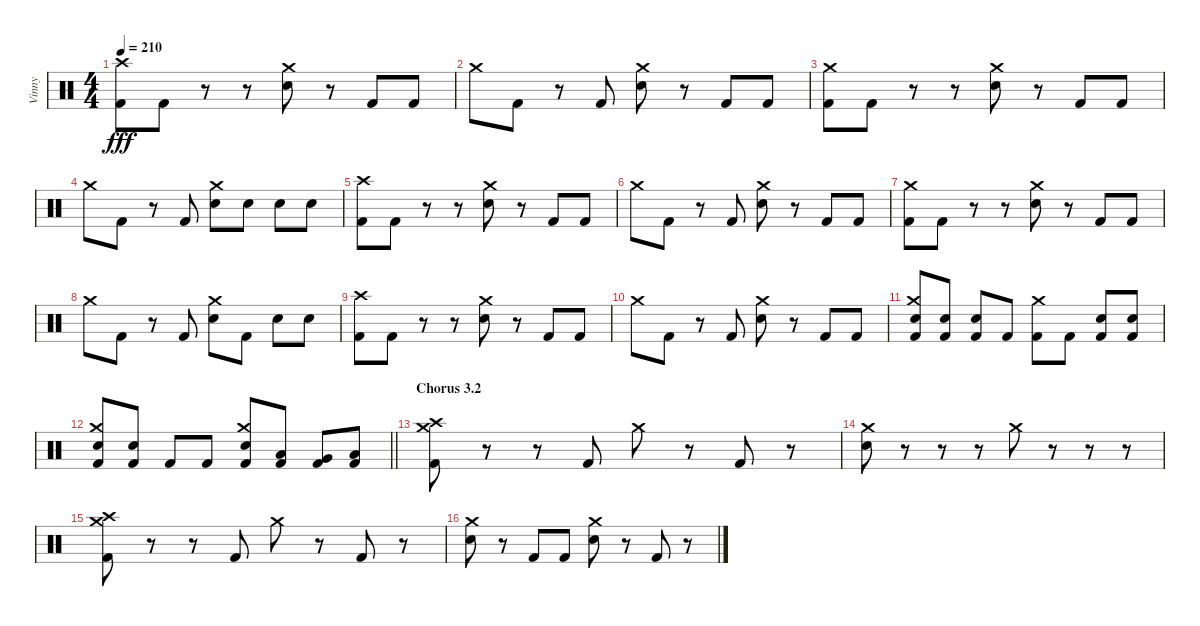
\track ("Vinny" "Vinny") {instrument percussion}
\staff {score}
\articulation defaults
\ts (4 4)
\tempo 210
\clef neutral
\ks c
("Crash high (hit)" "Kick (hit) 2").8{dy fff} "Kick (hit) 2".8 r.8 r.8 ("Crash medium (hit)" "Electric Snare (hit)").8 r.8 "Kick (hit) 2".8 "Kick (hit) 2".8 |
"Crash medium (hit)".8 "Kick (hit) 2".8 r.8 "Kick (hit) 2".8 ("Crash medium (hit)" "Electric Snare (hit)").8 r.8 "Kick (hit) 2".8 "Kick (hit) 2".8 |
("Crash medium (hit)" "Kick (hit) 2").8 "Kick (hit) 2".8 r.8 r.8 ("Crash medium (hit)" "Electric Snare (hit)").8 r.8 "Kick (hit) 2".8 "Kick (hit) 2".8 |
"Crash medium (hit)".8 "Kick (hit) 2".8 r.8 "Kick (hit) 2".8 ("Crash medium (hit)" "Electric Snare (hit)").8 "Electric Snare (hit)".8 "Electric Snare (hit)".8 "Electric Snare (hit)".8 |
("Crash high (hit)" "Kick (hit) 2").8 "Kick (hit) 2".8 r.8 r.8 ("Crash medium (hit)" "Electric Snare (hit)").8 r.8 "Kick (hit) 2".8 "Kick (hit) 2".8 |
"Crash medium (hit)".8 "Kick (hit) 2".8 r.8 "Kick (hit) 2".8 ("Crash medium (hit)" "Electric Snare (hit)").8 r.8 "Kick (hit) 2".8 "Kick (hit) 2".8 |
("Crash medium (hit)" "Kick (hit) 2").8 "Kick (hit) 2".8 r.8 r.8 ("Crash medium (hit)" "Electric Snare (hit)").8 r.8 "Kick (hit) 2".8 "Kick (hit) 2".8 |
"Crash medium (hit)".8 "Kick (hit) 2".8 r.8 "Kick (hit) 2".8 ("Crash medium (hit)" "Electric Snare (hit)").8 "Kick (hit) 2".8 "Electric Snare (hit)".8 "Electric Snare (hit)".8 |
("Crash high (hit)" "Kick (hit) 2").8 "Kick (hit) 2".8 r.8 r.8 ("Crash medium (hit)" "Electric Snare (hit)").8 r.8 "Kick (hit) 2".8 "Kick (hit) 2".8 |
"Crash medium (hit)".8 "Kick (hit) 2".8 r.8 "Kick (hit) 2".8 ("Crash medium (hit)" "Electric Snare (hit)").8 r.8 "Kick (hit) 2".8 "Kick (hit) 2".8 |
("Crash medium (hit)" "Electric Snare (hit)" "Kick (hit) 2").8 ("Electric Snare (hit)" "Kick (hit) 2").8 ("Electric Snare (hit)" "Kick (hit) 2").8 "Kick (hit) 2".8 ("Crash medium (hit)" "Kick (hit) 2").8 "Kick (hit) 2".8 ("Electric Snare (hit)" "Kick (hit) 2").8 ("Electric Snare (hit)" "Kick (hit) 2").8 |
\barLineRight lightlight
("Crash medium (hit)" "Electric Snare (hit)" "Kick (hit) 2").8 ("Electric Snare (hit)" "Kick (hit) 2").8 "Kick (hit) 2".8 "Kick (hit) 2".8 ("Crash medium (hit)" "Electric Snare (hit)" "Kick (hit) 2").8 ("Low Tom (hit)" "Kick (hit) 2").8 ("Very Low Tom (hit)" "Kick (hit) 2").8 ("Low Floor Tom (hit)" "Kick (hit) 2").8 |
\section ("" "Chorus 3.2")
("Crash high (hit)" "Crash medium (hit)" "Kick (hit) 2").8 r.8 r.8 "Kick (hit) 2".8 "Crash medium (hit)".8 r.8 "Kick (hit) 2".8 r.8 |
("Crash medium (hit)" "Electric Snare (hit)").8 r.8 r.8 r.8 "Crash medium (hit)".8 r.8 r.8 r.8 |
("Crash high (hit)" "Crash medium (hit)" "Kick (hit) 2").8 r.8 r.8 "Kick (hit) 2".8 "Crash medium (hit)".8 r.8 "Kick (hit) 2".8 r.8 |
("Crash medium (hit)" "Electric Snare (hit)").8 r.8 "Kick (hit) 2".8 "Kick (hit) 2".8 ("Crash medium (hit)" "Electric Snare (hit)").8 r.8 "Kick (hit) 2".8 r.8
